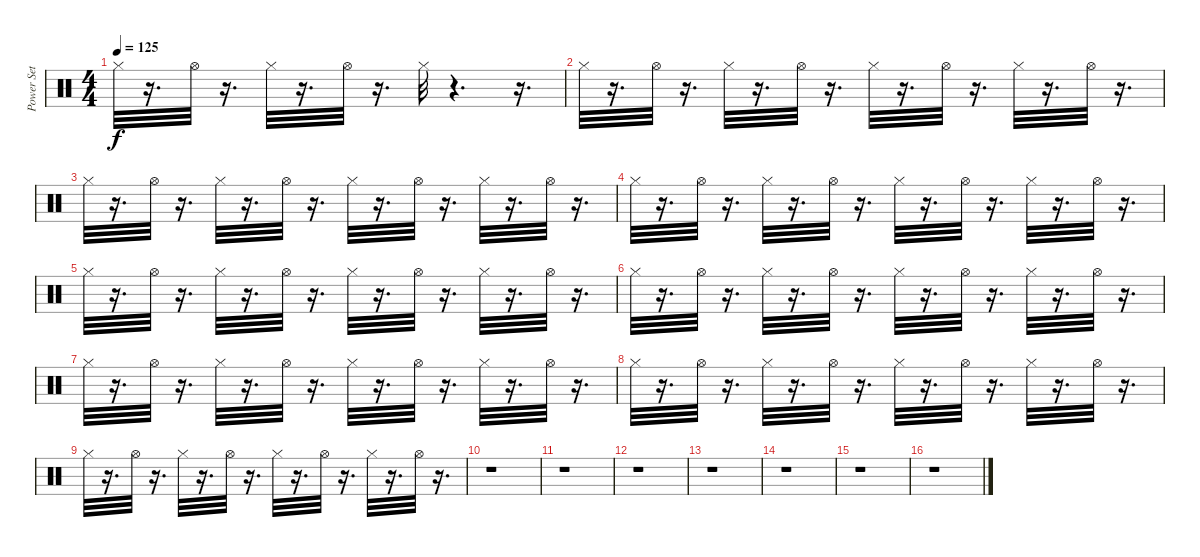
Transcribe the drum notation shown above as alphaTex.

\track ("Power Set" "Power Set") {instrument percussion}
\staff {score}
\articulation defaults
\ts (4 4)
\tempo 125
\clef neutral
\ks c "Hi-Hat (closed)".32{dy f}
r.16{d} "Hi-Hat (open)".32 r.16{d} "Hi-Hat (closed)".32 r.16{d} "Hi-Hat (open)".32 r.16{d} "Hi-Hat (closed)".32 r.4{d} r.16{d} |
"Hi-Hat (closed)".32 r.16{d} "Hi-Hat (open)".32 r.16{d} "Hi-Hat (closed)".32 r.16{d} "Hi-Hat (open)".32 r.16{d} "Hi-Hat (closed)".32 r.16{d} "Hi-Hat (open)".32 r.16{d} "Hi-Hat (closed)".32 r.16{d} "Hi-Hat (open)".32 r.16{d} |
"Hi-Hat (closed)".32 r.16{d} "Hi-Hat (open)".32 r.16{d} "Hi-Hat (closed)".32 r.16{d} "Hi-Hat (open)".32 r.16{d} "Hi-Hat (closed)".32 r.16{d} "Hi-Hat (open)".32 r.16{d} "Hi-Hat (closed)".32 r.16{d} "Hi-Hat (open)".32 r.16{d} |
"Hi-Hat (closed)".32 r.16{d} "Hi-Hat (open)".32 r.16{d} "Hi-Hat (closed)".32 r.16{d} "Hi-Hat (open)".32 r.16{d} "Hi-Hat (closed)".32 r.16{d} "Hi-Hat (open)".32 r.16{d} "Hi-Hat (closed)".32 r.16{d} "Hi-Hat (open)".32 r.16{d} |
"Hi-Hat (closed)".32 r.16{d} "Hi-Hat (open)".32 r.16{d} "Hi-Hat (closed)".32 r.16{d} "Hi-Hat (open)".32 r.16{d} "Hi-Hat (closed)".32 r.16{d} "Hi-Hat (open)".32 r.16{d} "Hi-Hat (closed)".32 r.16{d} "Hi-Hat (open)".32 r.16{d} |
"Hi-Hat (closed)".32 r.16{d} "Hi-Hat (open)".32 r.16{d} "Hi-Hat (closed)".32 r.16{d} "Hi-Hat (open)".32 r.16{d} "Hi-Hat (closed)".32 r.16{d} "Hi-Hat (open)".32 r.16{d} "Hi-Hat (closed)".32 r.16{d} "Hi-Hat (open)".32 r.16{d} |
"Hi-Hat (closed)".32 r.16{d} "Hi-Hat (open)".32 r.16{d} "Hi-Hat (closed)".32 r.16{d} "Hi-Hat (open)".32 r.16{d} "Hi-Hat (closed)".32 r.16{d} "Hi-Hat (open)".32 r.16{d} "Hi-Hat (closed)".32 r.16{d} "Hi-Hat (open)".32 r.16{d} |
"Hi-Hat (closed)".32 r.16{d} "Hi-Hat (open)".32 r.16{d} "Hi-Hat (closed)".32 r.16{d} "Hi-Hat (open)".32 r.16{d} "Hi-Hat (closed)".32 r.16{d} "Hi-Hat (open)".32 r.16{d} "Hi-Hat (closed)".32 r.16{d} "Hi-Hat (open)".32 r.16{d} |
"Hi-Hat (closed)".32 r.16{d} "Hi-Hat (open)".32 r.16{d} "Hi-Hat (closed)".32 r.16{d} "Hi-Hat (open)".32 r.16{d} "Hi-Hat (closed)".32 r.16{d} "Hi-Hat (open)".32 r.16{d} "Hi-Hat (closed)".32 r.16{d} "Hi-Hat (open)".32 r.16{d} |
r.1 |
r.1 |
r.1 |
r.1 |
r.1 |
r.1 |
r.1
